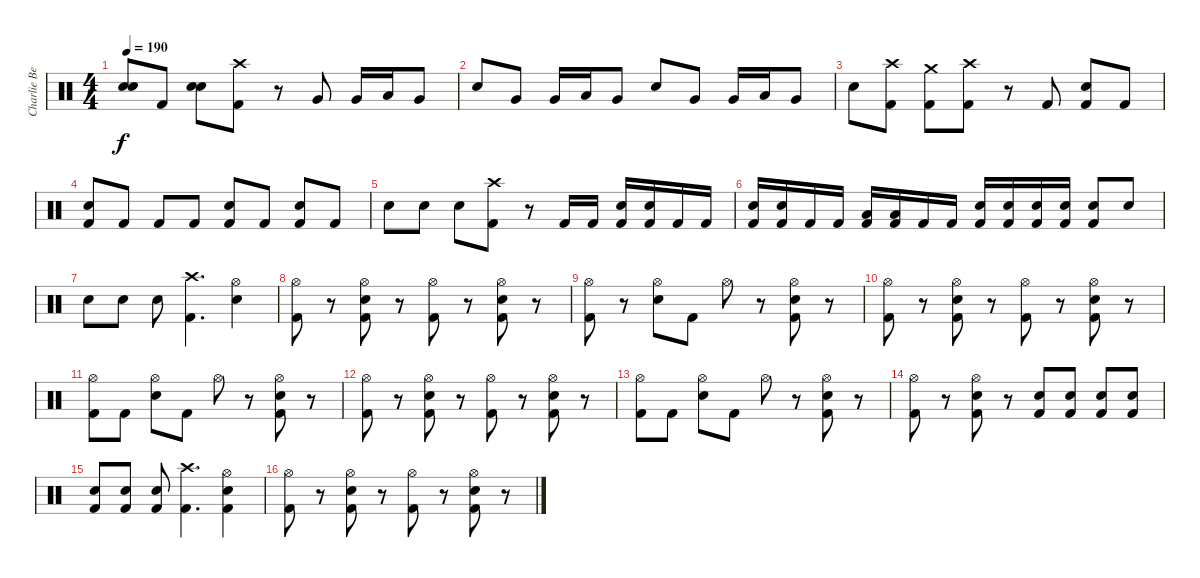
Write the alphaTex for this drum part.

\track ("Charlie Benante" "Charlie Be") {instrument percussion}
\staff {score}
\articulation defaults
\ts (4 4)
\tempo 190
\clef neutral
\ks c
("Snare (hit) 2" "Snare (hit) 2").8{bd 120 dy f} "Kick (hit) 2".8 ("Snare (hit) 2" "Snare (hit) 2").8{bd 120} ("Kick (hit) 2" "Crash high (hit)").8 r.8 "Very Low Tom (hit)".8 "Very Low Tom (hit)".16 "Low Tom (hit)".16 "Very Low Tom (hit)".8 |
"Snare (hit) 2".8 "Very Low Tom (hit)".8 "Very Low Tom (hit)".16 "Low Tom (hit)".16 "Very Low Tom (hit)".8 "Snare (hit) 2".8 "Very Low Tom (hit)".8 "Very Low Tom (hit)".16 "Low Tom (hit)".16 "Very Low Tom (hit)".8 |
"Snare (hit) 2".8 ("Kick (hit) 2" "Crash high (hit)").8 ("Kick (hit) 2" "Crash medium (hit)").8 ("Kick (hit) 2" "Crash high (hit)").8 r.8 "Kick (hit) 2".8 ("Kick (hit) 2" "Snare (hit) 2").8 "Kick (hit) 2".8 |
("Kick (hit) 2" "Snare (hit) 2").8 "Kick (hit) 2".8 "Kick (hit) 2".8 "Kick (hit) 2".8 ("Kick (hit) 2" "Snare (hit) 2").8 "Kick (hit) 2".8 ("Kick (hit) 2" "Snare (hit) 2").8 "Kick (hit) 2".8 |
"Snare (hit) 2".8 "Snare (hit) 2".8 "Snare (hit) 2".8 ("Kick (hit) 2" "Crash high (hit)").8 r.8 "Kick (hit) 2".16 "Kick (hit) 2".16 ("Kick (hit) 2" "Snare (hit) 2").16 ("Kick (hit) 2" "Snare (hit) 2").16 "Kick (hit) 2".16 "Kick (hit) 2".16 |
("Kick (hit) 2" "Snare (hit) 2").16 ("Kick (hit) 2" "Snare (hit) 2").16 "Kick (hit) 2".16 "Kick (hit) 2".16 ("Kick (hit) 2" "Low Tom (hit)").16 ("Kick (hit) 2" "Low Tom (hit)").16 "Kick (hit) 2".16 "Kick (hit) 2".16 ("Kick (hit) 2" "Snare (hit) 2").16 ("Kick (hit) 2" "Snare (hit) 2").16 ("Kick (hit) 2" "Snare (hit) 2").16 ("Kick (hit) 2" "Snare (hit) 2").16 ("Kick (hit) 2" "Snare (hit) 2").8 "Snare (hit) 2".8 |
"Snare (hit) 2".8 "Snare (hit) 2".8 "Snare (hit) 2".8 ("Kick (hit) 2" "Crash high (hit)").4{d} ("Snare (hit) 2" "Hi-Hat (open)").4 |
("Kick (hit) 2" "Hi-Hat (open)").8 r.8 ("Kick (hit) 2" "Snare (hit) 2" "Hi-Hat (open)").8 r.8 ("Kick (hit) 2" "Hi-Hat (open)").8 r.8 ("Kick (hit) 2" "Snare (hit) 2" "Hi-Hat (open)").8 r.8 |
("Kick (hit) 2" "Hi-Hat (open)").8 r.8 ("Snare (hit) 2" "Hi-Hat (open)").8 "Kick (hit) 2".8 "Hi-Hat (open)".8 r.8 ("Kick (hit) 2" "Snare (hit) 2" "Hi-Hat (open)").8 r.8 |
("Kick (hit) 2" "Hi-Hat (open)").8 r.8 ("Kick (hit) 2" "Snare (hit) 2" "Hi-Hat (open)").8 r.8 ("Kick (hit) 2" "Hi-Hat (open)").8 r.8 ("Kick (hit) 2" "Snare (hit) 2" "Hi-Hat (open)").8 r.8 |
("Kick (hit) 2" "Hi-Hat (open)").8 "Kick (hit) 2".8 ("Snare (hit) 2" "Hi-Hat (open)").8 "Kick (hit) 2".8 "Hi-Hat (open)".8 r.8 ("Kick (hit) 2" "Snare (hit) 2" "Hi-Hat (open)").8 r.8 |
("Kick (hit) 2" "Hi-Hat (open)").8 r.8 ("Kick (hit) 2" "Snare (hit) 2" "Hi-Hat (open)").8 r.8 ("Kick (hit) 2" "Hi-Hat (open)").8 r.8 ("Kick (hit) 2" "Snare (hit) 2" "Hi-Hat (open)").8 r.8 |
("Kick (hit) 2" "Hi-Hat (open)").8 "Kick (hit) 2".8 ("Snare (hit) 2" "Hi-Hat (open)").8 "Kick (hit) 2".8 "Hi-Hat (open)".8 r.8 ("Kick (hit) 2" "Snare (hit) 2" "Hi-Hat (open)").8 r.8 |
("Kick (hit) 2" "Hi-Hat (open)").8 r.8 ("Kick (hit) 2" "Snare (hit) 2" "Hi-Hat (open)").8 r.8 ("Snare (hit) 2" "Kick (hit) 2").8 ("Snare (hit) 2" "Kick (hit) 2").8 ("Snare (hit) 2" "Kick (hit) 2").8 ("Snare (hit) 2" "Kick (hit) 2").8 |
("Snare (hit) 2" "Kick (hit) 2").8 ("Snare (hit) 2" "Kick (hit) 2").8 ("Snare (hit) 2" "Kick (hit) 2").8 ("Kick (hit) 2" "Crash high (hit)").4{d} ("Kick (hit) 2" "Snare (hit) 2" "Hi-Hat (open)").4 |
("Kick (hit) 2" "Hi-Hat (open)").8 r.8 ("Kick (hit) 2" "Snare (hit) 2" "Hi-Hat (open)").8 r.8 ("Kick (hit) 2" "Hi-Hat (open)").8 r.8 ("Kick (hit) 2" "Snare (hit) 2" "Hi-Hat (open)").8 r.8
